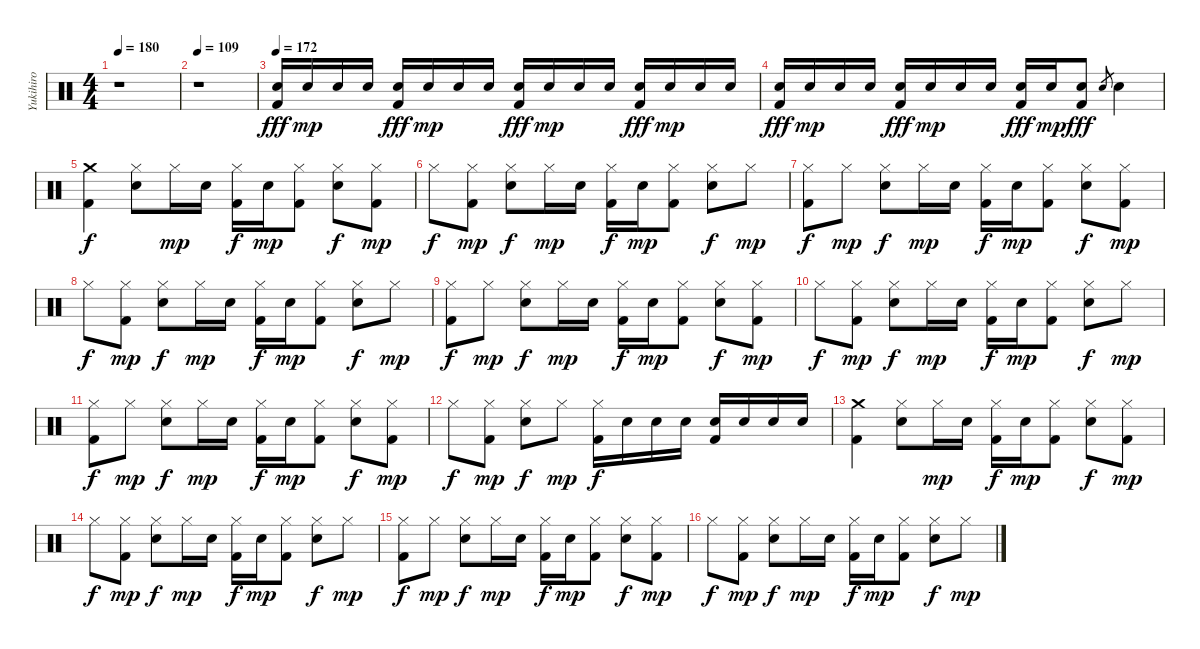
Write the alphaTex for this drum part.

\track ("Yukihiro" "Yukihiro") {instrument percussion}
\staff {score}
\articulation defaults
\ts (4 4)
\tempo 180
\clef neutral
\ks c
r.1{dy fff} |
\tempo 109
r.1 |
\tempo 172
("Electric Snare (hit)" "Kick (hit) 2").16 "Electric Snare (hit)".16{dy mp} "Electric Snare (hit)".16 "Electric Snare (hit)".16 ("Electric Snare (hit)" "Kick (hit) 2").16{dy fff} "Electric Snare (hit)".16{dy mp} "Electric Snare (hit)".16 "Electric Snare (hit)".16 ("Electric Snare (hit)" "Kick (hit) 2").16{dy fff} "Electric Snare (hit)".16{dy mp} "Electric Snare (hit)".16 "Electric Snare (hit)".16 ("Electric Snare (hit)" "Kick (hit) 2").16{dy fff} "Electric Snare (hit)".16{dy mp} "Electric Snare (hit)".16 "Electric Snare (hit)".16 |
("Electric Snare (hit)" "Kick (hit) 2").16{dy fff} "Electric Snare (hit)".16{dy mp} "Electric Snare (hit)".16 "Electric Snare (hit)".16 ("Electric Snare (hit)" "Kick (hit) 2").16{dy fff} "Electric Snare (hit)".16{dy mp} "Electric Snare (hit)".16 "Electric Snare (hit)".16 ("Electric Snare (hit)" "Kick (hit) 2").16{dy fff} "Electric Snare (hit)".16{dy mp} ("Electric Snare (hit)" "Kick (hit) 2").8{dy fff} "Electric Snare (hit)".8{gr} "Electric Snare (hit)".4 |
("Crash medium (hit)" "Kick (hit) 2").4{dy f} ("Hi-Hat (closed)" "Electric Snare (hit)").8 "Hi-Hat (closed)".16{dy mp} "Electric Snare (hit)".16 ("Hi-Hat (closed)" "Kick (hit) 2").16{dy f} "Electric Snare (hit)".16{dy mp} ("Hi-Hat (closed)" "Kick (hit) 2").8 ("Hi-Hat (closed)" "Electric Snare (hit)").8{dy f} ("Hi-Hat (closed)" "Kick (hit) 2").8{dy mp} |
"Hi-Hat (closed)".8{dy f} ("Hi-Hat (closed)" "Kick (hit) 2").8{dy mp} ("Hi-Hat (closed)" "Electric Snare (hit)").8{dy f} "Hi-Hat (closed)".16{dy mp} "Electric Snare (hit)".16 ("Hi-Hat (closed)" "Kick (hit) 2").16{dy f} "Electric Snare (hit)".16{dy mp} ("Hi-Hat (closed)" "Kick (hit) 2").8 ("Hi-Hat (closed)" "Electric Snare (hit)").8{dy f} "Hi-Hat (closed)".8{dy mp} |
("Hi-Hat (closed)" "Kick (hit) 2").8{dy f} "Hi-Hat (closed)".8{dy mp} ("Hi-Hat (closed)" "Electric Snare (hit)").8{dy f} "Hi-Hat (closed)".16{dy mp} "Electric Snare (hit)".16 ("Hi-Hat (closed)" "Kick (hit) 2").16{dy f} "Electric Snare (hit)".16{dy mp} ("Hi-Hat (closed)" "Kick (hit) 2").8 ("Hi-Hat (closed)" "Electric Snare (hit)").8{dy f} ("Hi-Hat (closed)" "Kick (hit) 2").8{dy mp} |
"Hi-Hat (closed)".8{dy f} ("Hi-Hat (closed)" "Kick (hit) 2").8{dy mp} ("Hi-Hat (closed)" "Electric Snare (hit)").8{dy f} "Hi-Hat (closed)".16{dy mp} "Electric Snare (hit)".16 ("Hi-Hat (closed)" "Kick (hit) 2").16{dy f} "Electric Snare (hit)".16{dy mp} ("Hi-Hat (closed)" "Kick (hit) 2").8 ("Hi-Hat (closed)" "Electric Snare (hit)").8{dy f} "Hi-Hat (closed)".8{dy mp} |
("Hi-Hat (closed)" "Kick (hit) 2").8{dy f} "Hi-Hat (closed)".8{dy mp} ("Hi-Hat (closed)" "Electric Snare (hit)").8{dy f} "Hi-Hat (closed)".16{dy mp} "Electric Snare (hit)".16 ("Hi-Hat (closed)" "Kick (hit) 2").16{dy f} "Electric Snare (hit)".16{dy mp} ("Hi-Hat (closed)" "Kick (hit) 2").8 ("Hi-Hat (closed)" "Electric Snare (hit)").8{dy f} ("Hi-Hat (closed)" "Kick (hit) 2").8{dy mp} |
"Hi-Hat (closed)".8{dy f} ("Hi-Hat (closed)" "Kick (hit) 2").8{dy mp} ("Hi-Hat (closed)" "Electric Snare (hit)").8{dy f} "Hi-Hat (closed)".16{dy mp} "Electric Snare (hit)".16 ("Hi-Hat (closed)" "Kick (hit) 2").16{dy f} "Electric Snare (hit)".16{dy mp} ("Hi-Hat (closed)" "Kick (hit) 2").8 ("Hi-Hat (closed)" "Electric Snare (hit)").8{dy f} "Hi-Hat (closed)".8{dy mp} |
("Hi-Hat (closed)" "Kick (hit) 2").8{dy f} "Hi-Hat (closed)".8{dy mp} ("Hi-Hat (closed)" "Electric Snare (hit)").8{dy f} "Hi-Hat (closed)".16{dy mp} "Electric Snare (hit)".16 ("Hi-Hat (closed)" "Kick (hit) 2").16{dy f} "Electric Snare (hit)".16{dy mp} ("Hi-Hat (closed)" "Kick (hit) 2").8 ("Hi-Hat (closed)" "Electric Snare (hit)").8{dy f} ("Hi-Hat (closed)" "Kick (hit) 2").8{dy mp} |
"Hi-Hat (closed)".8{dy f} ("Hi-Hat (closed)" "Kick (hit) 2").8{dy mp} ("Hi-Hat (closed)" "Electric Snare (hit)").8{dy f} "Hi-Hat (closed)".8{dy mp} ("Hi-Hat (closed)" "Kick (hit) 2").16{dy f} "Electric Snare (hit)".16 "Electric Snare (hit)".16 "Electric Snare (hit)".16 ("Electric Snare (hit)" "Kick (hit) 2").16 "Electric Snare (hit)".16 "Electric Snare (hit)".16 "Electric Snare (hit)".16 |
("Crash medium (hit)" "Kick (hit) 2").4 ("Hi-Hat (closed)" "Electric Snare (hit)").8 "Hi-Hat (closed)".16{dy mp} "Electric Snare (hit)".16 ("Hi-Hat (closed)" "Kick (hit) 2").16{dy f} "Electric Snare (hit)".16{dy mp} ("Hi-Hat (closed)" "Kick (hit) 2").8 ("Hi-Hat (closed)" "Electric Snare (hit)").8{dy f} ("Hi-Hat (closed)" "Kick (hit) 2").8{dy mp} |
"Hi-Hat (closed)".8{dy f} ("Hi-Hat (closed)" "Kick (hit) 2").8{dy mp} ("Hi-Hat (closed)" "Electric Snare (hit)").8{dy f} "Hi-Hat (closed)".16{dy mp} "Electric Snare (hit)".16 ("Hi-Hat (closed)" "Kick (hit) 2").16{dy f} "Electric Snare (hit)".16{dy mp} ("Hi-Hat (closed)" "Kick (hit) 2").8 ("Hi-Hat (closed)" "Electric Snare (hit)").8{dy f} "Hi-Hat (closed)".8{dy mp} |
("Hi-Hat (closed)" "Kick (hit) 2").8{dy f} "Hi-Hat (closed)".8{dy mp} ("Hi-Hat (closed)" "Electric Snare (hit)").8{dy f} "Hi-Hat (closed)".16{dy mp} "Electric Snare (hit)".16 ("Hi-Hat (closed)" "Kick (hit) 2").16{dy f} "Electric Snare (hit)".16{dy mp} ("Hi-Hat (closed)" "Kick (hit) 2").8 ("Hi-Hat (closed)" "Electric Snare (hit)").8{dy f} ("Hi-Hat (closed)" "Kick (hit) 2").8{dy mp} |
"Hi-Hat (closed)".8{dy f} ("Hi-Hat (closed)" "Kick (hit) 2").8{dy mp} ("Hi-Hat (closed)" "Electric Snare (hit)").8{dy f} "Hi-Hat (closed)".16{dy mp} "Electric Snare (hit)".16 ("Hi-Hat (closed)" "Kick (hit) 2").16{dy f} "Electric Snare (hit)".16{dy mp} ("Hi-Hat (closed)" "Kick (hit) 2").8 ("Hi-Hat (closed)" "Electric Snare (hit)").8{dy f} "Hi-Hat (closed)".8{dy mp}
